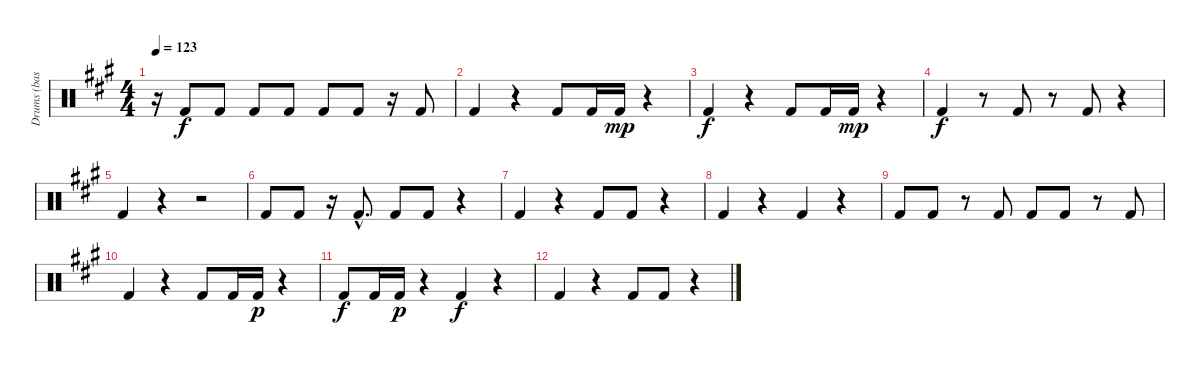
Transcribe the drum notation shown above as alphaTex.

\track ("Drums (bass Drums)" "Drums (bas") {instrument percussion}
\staff {score}
\articulation defaults
\ts (4 4)
\tempo 123
\clef neutral
\ks a
r.16{dy f} "Kick (hit) 2".8 "Kick (hit) 2".8 "Kick (hit) 2".8 "Kick (hit) 2".8 "Kick (hit) 2".8 "Kick (hit) 2".8 r.16 "Kick (hit) 2".8 |
"Kick (hit) 2".4 r.4 "Kick (hit) 2".8 "Kick (hit) 2".16 "Kick (hit) 2".16{dy mp} r.4 |
"Kick (hit) 2".4{dy f} r.4 "Kick (hit) 2".8 "Kick (hit) 2".16 "Kick (hit) 2".16{dy mp} r.4 |
"Kick (hit) 2".4{dy f} r.8 "Kick (hit) 2".8 r.8 "Kick (hit) 2".8 r.4 |
"Kick (hit) 2".4 r.4 r.2 |
"Kick (hit) 2".8 "Kick (hit) 2".8 r.16 "Kick (hit) 2"{hac}.8{d} "Kick (hit) 2".8 "Kick (hit) 2".8 r.4 |
"Kick (hit) 2".4 r.4 "Kick (hit) 2".8 "Kick (hit) 2".8 r.4 |
"Kick (hit) 2".4 r.4 "Kick (hit) 2".4 r.4 |
"Kick (hit) 2".8 "Kick (hit) 2".8 r.8 "Kick (hit) 2".8 "Kick (hit) 2".8 "Kick (hit) 2".8 r.8 "Kick (hit) 2".8 |
"Kick (hit) 2".4 r.4 "Kick (hit) 2".8 "Kick (hit) 2".16 "Kick (hit) 2".16{dy p} r.4 |
"Kick (hit) 2".8{dy f} "Kick (hit) 2".16 "Kick (hit) 2".16{dy p} r.4 "Kick (hit) 2".4{dy f} r.4 |
"Kick (hit) 2".4 r.4 "Kick (hit) 2".8 "Kick (hit) 2".8 r.4
